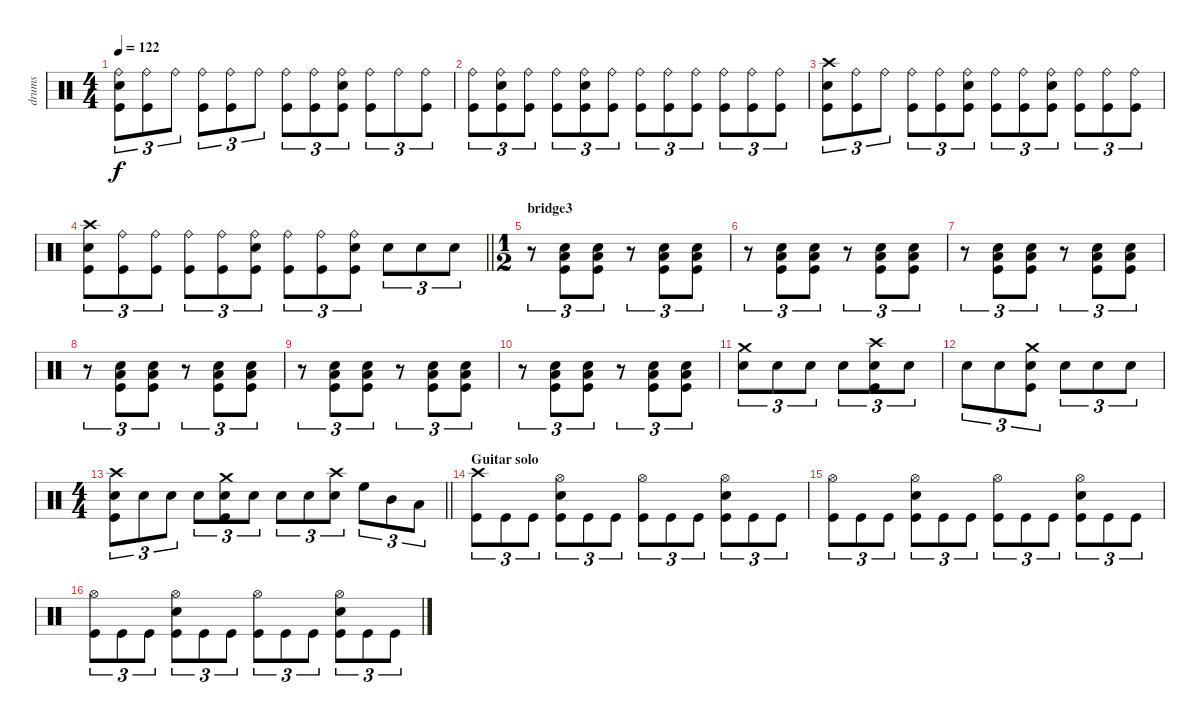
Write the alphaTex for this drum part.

\track ("drums" "drums") {instrument percussion}
\staff {score}
\articulation defaults
\ts (4 4)
\tempo 122
\clef neutral
\ks c
("Snare (hit) 2" "Kick (hit)" "Ride (bell)").8{tu (3 2) dy f} ("Kick (hit)" "Ride (bell)").8{tu (3 2)} "Ride (bell)".8{tu (3 2)} ("Kick (hit)" "Ride (bell)").8{tu (3 2)} ("Kick (hit)" "Ride (bell)").8{tu (3 2)} "Ride (bell)".8{tu (3 2)} ("Kick (hit)" "Ride (bell)").8{tu (3 2)} ("Kick (hit)" "Ride (bell)").8{tu (3 2)} ("Snare (hit) 2" "Kick (hit)" "Ride (bell)").8{tu (3 2)} ("Kick (hit)" "Ride (bell)").8{tu (3 2)} "Ride (bell)".8{tu (3 2)} ("Kick (hit)" "Ride (bell)").8{tu (3 2)} |
("Kick (hit)" "Ride (bell)").8{tu (3 2)} ("Snare (hit) 2" "Kick (hit)" "Ride (bell)").8{tu (3 2)} ("Kick (hit)" "Ride (bell)").8{tu (3 2)} ("Kick (hit)" "Ride (bell)").8{tu (3 2)} ("Snare (hit) 2" "Kick (hit)" "Ride (bell)").8{tu (3 2)} ("Kick (hit)" "Ride (bell)").8{tu (3 2)} ("Kick (hit)" "Ride (bell)").8{tu (3 2)} ("Kick (hit)" "Ride (bell)").8{tu (3 2)} ("Kick (hit)" "Ride (bell)").8{tu (3 2)} ("Kick (hit)" "Ride (bell)").8{tu (3 2)} ("Kick (hit)" "Ride (bell)").8{tu (3 2)} ("Kick (hit)" "Ride (bell)").8{tu (3 2)} |
("Snare (hit) 2" "Kick (hit)" "Crash high (hit)").8{tu (3 2)} ("Kick (hit)" "Ride (bell)").8{tu (3 2)} "Ride (bell)".8{tu (3 2)} ("Kick (hit)" "Ride (bell)").8{tu (3 2)} ("Kick (hit)" "Ride (bell)").8{tu (3 2)} ("Snare (hit) 2" "Kick (hit)" "Ride (bell)").8{tu (3 2)} ("Kick (hit)" "Ride (bell)").8{tu (3 2)} ("Kick (hit)" "Ride (bell)").8{tu (3 2)} ("Snare (hit) 2" "Kick (hit)" "Ride (bell)").8{tu (3 2)} ("Kick (hit)" "Ride (bell)").8{tu (3 2)} ("Kick (hit)" "Ride (bell)").8{tu (3 2)} ("Kick (hit)" "Ride (bell)").8{tu (3 2)} |
\barLineRight lightlight
("Snare (hit) 2" "Kick (hit)" "Crash high (hit)").8{tu (3 2)} ("Kick (hit)" "Ride (bell)").8{tu (3 2)} ("Kick (hit)" "Ride (bell)").8{tu (3 2)} ("Kick (hit)" "Ride (bell)").8{tu (3 2)} ("Kick (hit)" "Ride (bell)").8{tu (3 2)} ("Snare (hit) 2" "Kick (hit)" "Ride (bell)").8{tu (3 2)} ("Kick (hit)" "Ride (bell)").8{tu (3 2)} ("Kick (hit)" "Ride (bell)").8{tu (3 2)} ("Snare (hit) 2" "Kick (hit)" "Ride (bell)").8{tu (3 2)} "Snare (hit) 2".8{tu (3 2)} "Snare (hit) 2".8{tu (3 2)} "Snare (hit) 2".8{tu (3 2)} |
\ts (1 2)
\section ("" "bridge3")
r.8{tu (3 2)} ("Snare (hit) 2" "Kick (hit)" "Low Floor Tom (hit)").8{tu (3 2)} ("Snare (hit) 2" "Kick (hit)" "Low Floor Tom (hit)").8{tu (3 2)} r.8{tu (3 2)} ("Snare (hit) 2" "Kick (hit)" "Low Floor Tom (hit)").8{tu (3 2)} ("Snare (hit) 2" "Kick (hit)" "Low Floor Tom (hit)").8{tu (3 2)} |
r.8{tu (3 2)} ("Snare (hit) 2" "Kick (hit)" "Low Floor Tom (hit)").8{tu (3 2)} ("Snare (hit) 2" "Kick (hit)" "Low Floor Tom (hit)").8{tu (3 2)} r.8{tu (3 2)} ("Snare (hit) 2" "Kick (hit)" "Low Floor Tom (hit)").8{tu (3 2)} ("Snare (hit) 2" "Kick (hit)" "Low Floor Tom (hit)").8{tu (3 2)} |
r.8{tu (3 2)} ("Snare (hit) 2" "Kick (hit)" "Low Floor Tom (hit)").8{tu (3 2)} ("Snare (hit) 2" "Kick (hit)" "Low Floor Tom (hit)").8{tu (3 2)} r.8{tu (3 2)} ("Snare (hit) 2" "Kick (hit)" "Low Floor Tom (hit)").8{tu (3 2)} ("Snare (hit) 2" "Kick (hit)" "Low Floor Tom (hit)").8{tu (3 2)} |
r.8{tu (3 2)} ("Snare (hit) 2" "Kick (hit)" "Low Floor Tom (hit)").8{tu (3 2)} ("Snare (hit) 2" "Kick (hit)" "Low Floor Tom (hit)").8{tu (3 2)} r.8{tu (3 2)} ("Snare (hit) 2" "Kick (hit)" "Low Floor Tom (hit)").8{tu (3 2)} ("Snare (hit) 2" "Kick (hit)" "Low Floor Tom (hit)").8{tu (3 2)} |
r.8{tu (3 2)} ("Snare (hit) 2" "Kick (hit)" "Low Floor Tom (hit)").8{tu (3 2)} ("Snare (hit) 2" "Kick (hit)" "Low Floor Tom (hit)").8{tu (3 2)} r.8{tu (3 2)} ("Snare (hit) 2" "Kick (hit)" "Low Floor Tom (hit)").8{tu (3 2)} ("Snare (hit) 2" "Kick (hit)" "Low Floor Tom (hit)").8{tu (3 2)} |
r.8{tu (3 2)} ("Snare (hit) 2" "Kick (hit)" "Low Floor Tom (hit)").8{tu (3 2)} ("Snare (hit) 2" "Kick (hit)" "Low Floor Tom (hit)").8{tu (3 2)} r.8{tu (3 2)} ("Snare (hit) 2" "Kick (hit)" "Low Floor Tom (hit)").8{tu (3 2)} ("Snare (hit) 2" "Kick (hit)" "Low Floor Tom (hit)").8{tu (3 2)} |
("Snare (hit) 2" "Crash medium (hit)").8{tu (3 2)} "Snare (hit) 2".8{tu (3 2)} "Snare (hit) 2".8{tu (3 2)} "Snare (hit) 2".8{tu (3 2)} ("Snare (hit) 2" "Kick (hit)" "Crash high (hit)").8{tu (3 2)} "Snare (hit) 2".8{tu (3 2)} |
"Snare (hit) 2".8{tu (3 2)} "Snare (hit) 2".8{tu (3 2)} ("Snare (hit) 2" "Kick (hit)" "Crash medium (hit)").8{tu (3 2)} "Snare (hit) 2".8{tu (3 2)} "Snare (hit) 2".8{tu (3 2)} "Snare (hit) 2".8{tu (3 2)} |
\ts (4 4)
\barLineRight lightlight
("Snare (hit) 2" "Kick (hit)" "Crash high (hit)").8{tu (3 2)} "Snare (hit) 2".8{tu (3 2)} "Snare (hit) 2".8{tu (3 2)} "Snare (hit) 2".8{tu (3 2)} ("Snare (hit) 2" "Kick (hit)" "Crash medium (hit)").8{tu (3 2)} "Snare (hit) 2".8{tu (3 2)} "Snare (hit) 2".8{tu (3 2)} "Snare (hit) 2".8{tu (3 2)} ("Snare (hit) 2" "Crash high (hit)").8{tu (3 2)} "High Floor Tom (hit)".8{tu (3 2)} "Mid Tom (hit)".8{tu (3 2)} "Low Tom (hit)".8{tu (3 2)} |
\section ("" "Guitar solo")
("Kick (hit)" "Crash high (hit)").8{tu (3 2)} "Kick (hit)".8{tu (3 2)} "Kick (hit)".8{tu (3 2)} ("Snare (hit) 2" "Kick (hit)" "Hi-Hat (open)").8{tu (3 2)} "Kick (hit)".8{tu (3 2)} "Kick (hit)".8{tu (3 2)} ("Kick (hit)" "Hi-Hat (open)").8{tu (3 2)} "Kick (hit)".8{tu (3 2)} "Kick (hit)".8{tu (3 2)} ("Snare (hit) 2" "Kick (hit)" "Hi-Hat (open)").8{tu (3 2)} "Kick (hit)".8{tu (3 2)} "Kick (hit)".8{tu (3 2)} |
("Kick (hit)" "Hi-Hat (open)").8{tu (3 2)} "Kick (hit)".8{tu (3 2)} "Kick (hit)".8{tu (3 2)} ("Snare (hit) 2" "Kick (hit)" "Hi-Hat (open)").8{tu (3 2)} "Kick (hit)".8{tu (3 2)} "Kick (hit)".8{tu (3 2)} ("Kick (hit)" "Hi-Hat (open)").8{tu (3 2)} "Kick (hit)".8{tu (3 2)} "Kick (hit)".8{tu (3 2)} ("Snare (hit) 2" "Kick (hit)" "Hi-Hat (open)").8{tu (3 2)} "Kick (hit)".8{tu (3 2)} "Kick (hit)".8{tu (3 2)} |
("Kick (hit)" "Hi-Hat (open)").8{tu (3 2)} "Kick (hit)".8{tu (3 2)} "Kick (hit)".8{tu (3 2)} ("Snare (hit) 2" "Kick (hit)" "Hi-Hat (open)").8{tu (3 2)} "Kick (hit)".8{tu (3 2)} "Kick (hit)".8{tu (3 2)} ("Kick (hit)" "Hi-Hat (open)").8{tu (3 2)} "Kick (hit)".8{tu (3 2)} "Kick (hit)".8{tu (3 2)} ("Snare (hit) 2" "Kick (hit)" "Hi-Hat (open)").8{tu (3 2)} "Kick (hit)".8{tu (3 2)} "Kick (hit)".8{tu (3 2)}
